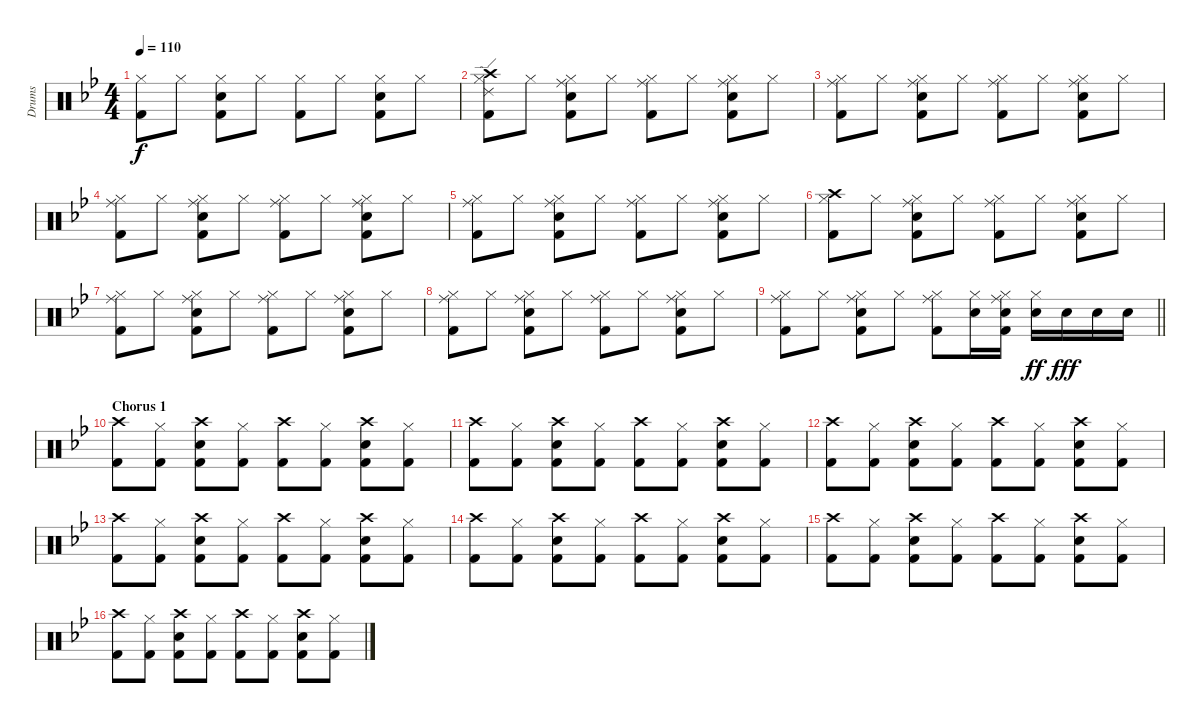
\track ("Drums" "Drums") {instrument percussion}
\staff {score}
\articulation defaults
\ts (4 4)
\tempo 110
\clef neutral
\ks bb
("Hi-Hat (closed)" "Kick (hit) 2").8{dy f} "Hi-Hat (closed)".8 ("Hi-Hat (closed)" "Electric Snare (hit)" "Kick (hit) 2").8 "Hi-Hat (closed)".8 ("Hi-Hat (closed)" "Kick (hit) 2").8 "Hi-Hat (closed)".8 ("Hi-Hat (closed)" "Electric Snare (hit)" "Kick (hit) 2").8 "Hi-Hat (closed)".8 |
("Crash high (hit)" "Ride (edge) 2" "Hi-Hat (closed)" "Kick (hit) 2").8 "Hi-Hat (closed)".8 ("Ride (middle)" "Hi-Hat (closed)" "Electric Snare (hit)" "Kick (hit) 2").8 "Hi-Hat (closed)".8 ("Ride (middle)" "Hi-Hat (closed)" "Kick (hit) 2").8 "Hi-Hat (closed)".8 ("Ride (middle)" "Hi-Hat (closed)" "Electric Snare (hit)" "Kick (hit) 2").8 "Hi-Hat (closed)".8 |
("Ride (middle)" "Hi-Hat (closed)" "Kick (hit) 2").8 "Hi-Hat (closed)".8 ("Ride (middle)" "Hi-Hat (closed)" "Electric Snare (hit)" "Kick (hit) 2").8 "Hi-Hat (closed)".8 ("Ride (middle)" "Hi-Hat (closed)" "Kick (hit) 2").8 "Hi-Hat (closed)".8 ("Ride (middle)" "Hi-Hat (closed)" "Electric Snare (hit)" "Kick (hit) 2").8 "Hi-Hat (closed)".8 |
("Ride (middle)" "Hi-Hat (closed)" "Kick (hit) 2").8 "Hi-Hat (closed)".8 ("Ride (middle)" "Hi-Hat (closed)" "Electric Snare (hit)" "Kick (hit) 2").8 "Hi-Hat (closed)".8 ("Ride (middle)" "Hi-Hat (closed)" "Kick (hit) 2").8 "Hi-Hat (closed)".8 ("Ride (middle)" "Hi-Hat (closed)" "Electric Snare (hit)" "Kick (hit) 2").8 "Hi-Hat (closed)".8 |
("Ride (middle)" "Hi-Hat (closed)" "Kick (hit) 2").8 "Hi-Hat (closed)".8 ("Ride (middle)" "Hi-Hat (closed)" "Electric Snare (hit)" "Kick (hit) 2").8 "Hi-Hat (closed)".8 ("Ride (middle)" "Hi-Hat (closed)" "Kick (hit) 2").8 "Hi-Hat (closed)".8 ("Ride (middle)" "Hi-Hat (closed)" "Electric Snare (hit)" "Kick (hit) 2").8 "Hi-Hat (closed)".8 |
("Crash high (hit)" "Hi-Hat (closed)" "Kick (hit) 2").8 "Hi-Hat (closed)".8 ("Ride (middle)" "Hi-Hat (closed)" "Electric Snare (hit)" "Kick (hit) 2").8 "Hi-Hat (closed)".8 ("Ride (middle)" "Hi-Hat (closed)" "Kick (hit) 2").8 "Hi-Hat (closed)".8 ("Ride (middle)" "Hi-Hat (closed)" "Electric Snare (hit)" "Kick (hit) 2").8 "Hi-Hat (closed)".8 |
("Ride (middle)" "Hi-Hat (closed)" "Kick (hit) 2").8 "Hi-Hat (closed)".8 ("Ride (middle)" "Hi-Hat (closed)" "Electric Snare (hit)" "Kick (hit) 2").8 "Hi-Hat (closed)".8 ("Ride (middle)" "Hi-Hat (closed)" "Kick (hit) 2").8 "Hi-Hat (closed)".8 ("Ride (middle)" "Hi-Hat (closed)" "Electric Snare (hit)" "Kick (hit) 2").8 "Hi-Hat (closed)".8 |
("Ride (middle)" "Hi-Hat (closed)" "Kick (hit) 2").8 "Hi-Hat (closed)".8 ("Ride (middle)" "Hi-Hat (closed)" "Electric Snare (hit)" "Kick (hit) 2").8 "Hi-Hat (closed)".8 ("Ride (middle)" "Hi-Hat (closed)" "Kick (hit) 2").8 "Hi-Hat (closed)".8 ("Ride (middle)" "Hi-Hat (closed)" "Electric Snare (hit)" "Kick (hit) 2").8 "Hi-Hat (closed)".8 |
\barLineRight lightlight
("Ride (middle)" "Hi-Hat (closed)" "Kick (hit) 2").8 "Hi-Hat (closed)".8 ("Ride (middle)" "Hi-Hat (closed)" "Electric Snare (hit)" "Kick (hit) 2").8 "Hi-Hat (closed)".8 ("Ride (middle)" "Hi-Hat (closed)" "Kick (hit) 2").8 ("Hi-Hat (closed)" "Electric Snare (hit)").16 ("Ride (middle)" "Hi-Hat (closed)" "Electric Snare (hit)" "Kick (hit) 2").16 ("Hi-Hat (closed)" "Electric Snare (hit)").16{dy ff} "Electric Snare (hit)".16{dy fff} "Electric Snare (hit)".16 "Electric Snare (hit)".16 |
\section ("" "Chorus 1")
("Crash high (hit)" "Kick (hit) 2").8 ("Hi-Hat (closed)" "Kick (hit) 2").8 ("Crash high (hit)" "Electric Snare (hit)" "Kick (hit) 2").8 ("Hi-Hat (closed)" "Kick (hit) 2").8 ("Crash high (hit)" "Kick (hit) 2").8 ("Hi-Hat (closed)" "Kick (hit) 2").8 ("Crash high (hit)" "Electric Snare (hit)" "Kick (hit) 2").8 ("Hi-Hat (closed)" "Kick (hit) 2").8 |
("Crash high (hit)" "Kick (hit) 2").8 ("Hi-Hat (closed)" "Kick (hit) 2").8 ("Crash high (hit)" "Electric Snare (hit)" "Kick (hit) 2").8 ("Hi-Hat (closed)" "Kick (hit) 2").8 ("Crash high (hit)" "Kick (hit) 2").8 ("Hi-Hat (closed)" "Kick (hit) 2").8 ("Crash high (hit)" "Electric Snare (hit)" "Kick (hit) 2").8 ("Hi-Hat (closed)" "Kick (hit) 2").8 |
("Crash high (hit)" "Kick (hit) 2").8 ("Hi-Hat (closed)" "Kick (hit) 2").8 ("Crash high (hit)" "Electric Snare (hit)" "Kick (hit) 2").8 ("Hi-Hat (closed)" "Kick (hit) 2").8 ("Crash high (hit)" "Kick (hit) 2").8 ("Hi-Hat (closed)" "Kick (hit) 2").8 ("Crash high (hit)" "Electric Snare (hit)" "Kick (hit) 2").8 ("Hi-Hat (closed)" "Kick (hit) 2").8 |
("Crash high (hit)" "Kick (hit) 2").8 ("Hi-Hat (closed)" "Kick (hit) 2").8 ("Crash high (hit)" "Electric Snare (hit)" "Kick (hit) 2").8 ("Hi-Hat (closed)" "Kick (hit) 2").8 ("Crash high (hit)" "Kick (hit) 2").8 ("Hi-Hat (closed)" "Kick (hit) 2").8 ("Crash high (hit)" "Electric Snare (hit)" "Kick (hit) 2").8 ("Hi-Hat (closed)" "Kick (hit) 2").8 |
("Crash high (hit)" "Kick (hit) 2").8 ("Hi-Hat (closed)" "Kick (hit) 2").8 ("Crash high (hit)" "Electric Snare (hit)" "Kick (hit) 2").8 ("Hi-Hat (closed)" "Kick (hit) 2").8 ("Crash high (hit)" "Kick (hit) 2").8 ("Hi-Hat (closed)" "Kick (hit) 2").8 ("Crash high (hit)" "Electric Snare (hit)" "Kick (hit) 2").8 ("Hi-Hat (closed)" "Kick (hit) 2").8 |
("Crash high (hit)" "Kick (hit) 2").8 ("Hi-Hat (closed)" "Kick (hit) 2").8 ("Crash high (hit)" "Electric Snare (hit)" "Kick (hit) 2").8 ("Hi-Hat (closed)" "Kick (hit) 2").8 ("Crash high (hit)" "Kick (hit) 2").8 ("Hi-Hat (closed)" "Kick (hit) 2").8 ("Crash high (hit)" "Electric Snare (hit)" "Kick (hit) 2").8 ("Hi-Hat (closed)" "Kick (hit) 2").8 |
("Crash high (hit)" "Kick (hit) 2").8 ("Hi-Hat (closed)" "Kick (hit) 2").8 ("Crash high (hit)" "Electric Snare (hit)" "Kick (hit) 2").8 ("Hi-Hat (closed)" "Kick (hit) 2").8 ("Crash high (hit)" "Kick (hit) 2").8 ("Hi-Hat (closed)" "Kick (hit) 2").8 ("Crash high (hit)" "Electric Snare (hit)" "Kick (hit) 2").8 ("Hi-Hat (closed)" "Kick (hit) 2").8
